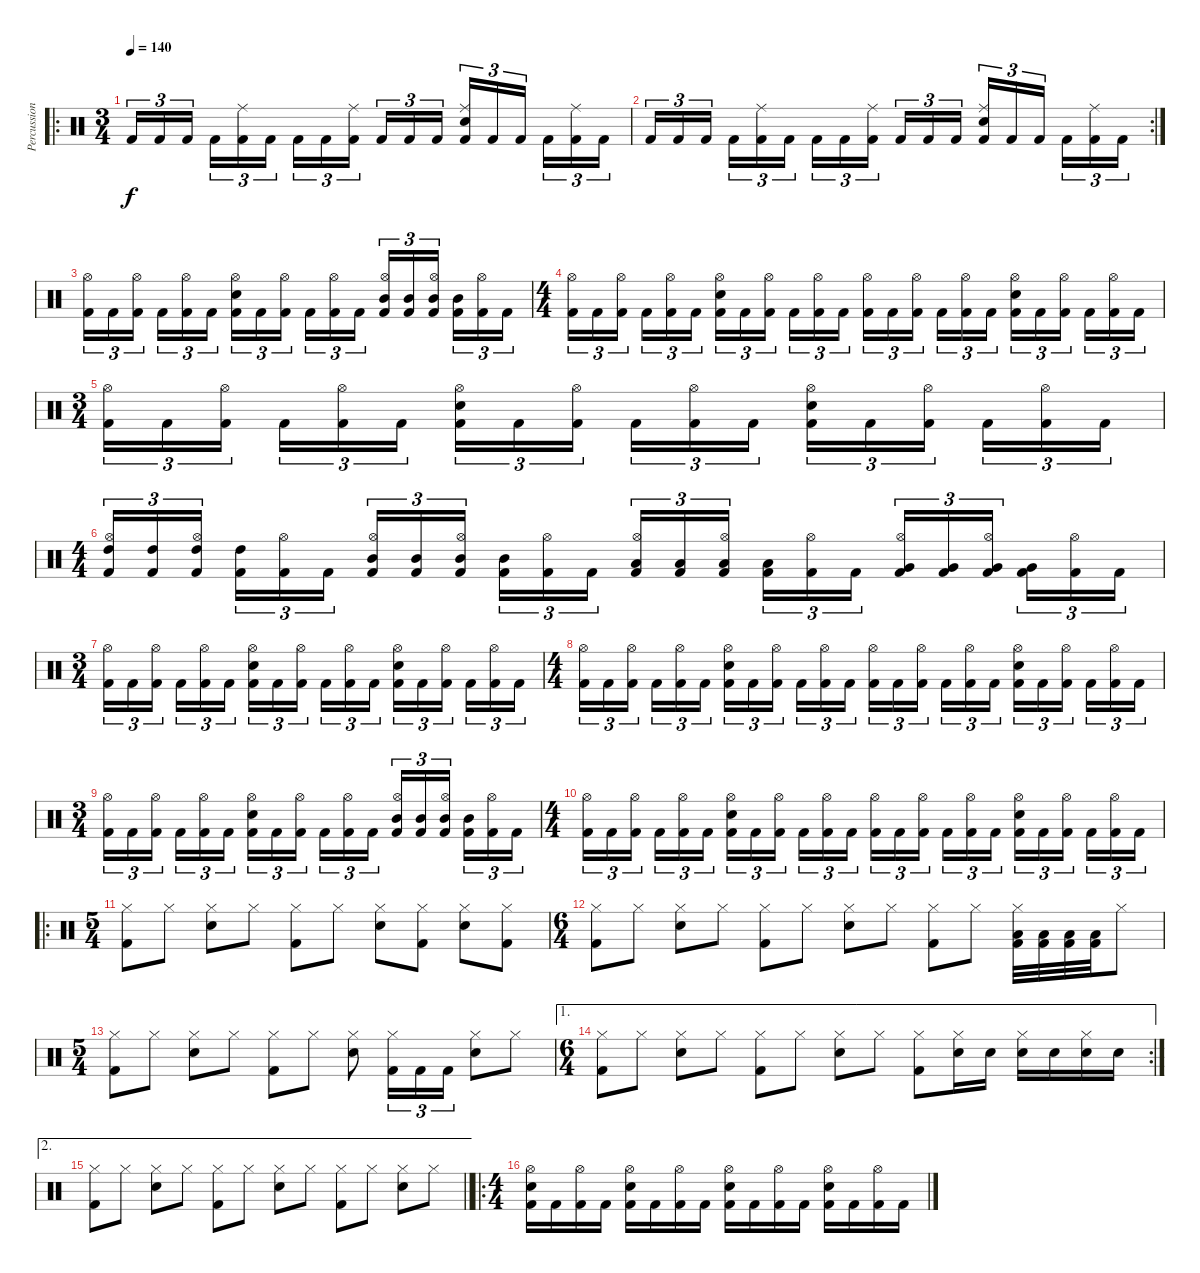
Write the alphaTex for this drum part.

\track ("Percussion" "Percussion") {instrument percussion}
\staff {score}
\articulation defaults
\ro
\ts (3 4)
\tempo 140
\clef neutral
\ks c "Kick (hit) 2".16{tu (3 2) dy f} "Kick (hit) 2".16{tu (3 2)} "Kick (hit) 2".16{tu (3 2)} "Kick (hit) 2".16{tu (3 2)}
("Ride (middle)" "Kick (hit) 2").16{tu (3 2)} "Kick (hit) 2".16{tu (3 2)} "Kick (hit) 2".16{tu (3 2)} "Kick (hit) 2".16{tu (3 2)} ("Ride (middle)" "Kick (hit) 2").16{tu (3 2)} "Kick (hit) 2".16{tu (3 2)} "Kick (hit) 2".16{tu (3 2)} "Kick (hit) 2".16{tu (3 2)} ("Ride (middle)" "Snare (hit) 2" "Kick (hit) 2").16{tu (3 2)} "Kick (hit) 2".16{tu (3 2)} "Kick (hit) 2".16{tu (3 2)} "Kick (hit) 2".16{tu (3 2)} ("Ride (middle)" "Kick (hit) 2").16{tu (3 2)} "Kick (hit) 2".16{tu (3 2)} |
\rc 2 "Kick (hit) 2".16{tu (3 2)} "Kick (hit) 2".16{tu (3 2)} "Kick (hit) 2".16{tu (3 2)} "Kick (hit) 2".16{tu (3 2)}
("Ride (middle)" "Kick (hit) 2").16{tu (3 2)} "Kick (hit) 2".16{tu (3 2)} "Kick (hit) 2".16{tu (3 2)} "Kick (hit) 2".16{tu (3 2)} ("Ride (middle)" "Kick (hit) 2").16{tu (3 2)} "Kick (hit) 2".16{tu (3 2)} "Kick (hit) 2".16{tu (3 2)} "Kick (hit) 2".16{tu (3 2)} ("Ride (middle)" "Snare (hit) 2" "Kick (hit) 2").16{tu (3 2)} "Kick (hit) 2".16{tu (3 2)} "Kick (hit) 2".16{tu (3 2)} "Kick (hit) 2".16{tu (3 2)} ("Ride (middle)" "Kick (hit) 2").16{tu (3 2)} "Kick (hit) 2".16{tu (3 2)} |
("Hi-Hat (open)" "Kick (hit) 2").16{tu (3 2)} "Kick (hit) 2".16{tu (3 2)} ("Hi-Hat (open)" "Kick (hit) 2").16{tu (3 2)} "Kick (hit) 2".16{tu (3 2)} ("Hi-Hat (open)" "Kick (hit) 2").16{tu (3 2)} "Kick (hit) 2".16{tu (3 2)} ("Hi-Hat (open)" "Snare (hit) 2" "Kick (hit) 2").16{tu (3 2)} "Kick (hit) 2".16{tu (3 2)} ("Hi-Hat (open)" "Kick (hit) 2").16{tu (3 2)} "Kick (hit) 2".16{tu (3 2)} ("Hi-Hat (open)" "Kick (hit) 2").16{tu (3 2)} "Kick (hit) 2".16{tu (3 2)} ("Hi-Hat (open)" "Mid Tom (hit)" "Kick (hit) 2").16{tu (3 2)} ("Mid Tom (hit)" "Kick (hit) 2").16{tu (3 2)} ("Hi-Hat (open)" "Mid Tom (hit)" "Kick (hit) 2").16{tu (3 2)} ("Mid Tom (hit)" "Kick (hit) 2").16{tu (3 2)} ("Hi-Hat (open)" "Kick (hit) 2").16{tu (3 2)} "Kick (hit) 2".16{tu (3 2)} |
\ts (4 4)
("Hi-Hat (open)" "Kick (hit) 2").16{tu (3 2)} "Kick (hit) 2".16{tu (3 2)} ("Hi-Hat (open)" "Kick (hit) 2").16{tu (3 2)} "Kick (hit) 2".16{tu (3 2)} ("Hi-Hat (open)" "Kick (hit) 2").16{tu (3 2)} "Kick (hit) 2".16{tu (3 2)} ("Hi-Hat (open)" "Snare (hit) 2" "Kick (hit) 2").16{tu (3 2)} "Kick (hit) 2".16{tu (3 2)} ("Hi-Hat (open)" "Kick (hit) 2").16{tu (3 2)} "Kick (hit) 2".16{tu (3 2)} ("Hi-Hat (open)" "Kick (hit) 2").16{tu (3 2)} "Kick (hit) 2".16{tu (3 2)} ("Hi-Hat (open)" "Kick (hit) 2").16{tu (3 2)} "Kick (hit) 2".16{tu (3 2)} ("Hi-Hat (open)" "Kick (hit) 2").16{tu (3 2)} "Kick (hit) 2".16{tu (3 2)} ("Hi-Hat (open)" "Kick (hit) 2").16{tu (3 2)} "Kick (hit) 2".16{tu (3 2)} ("Hi-Hat (open)" "Snare (hit) 2" "Kick (hit) 2").16{tu (3 2)} "Kick (hit) 2".16{tu (3 2)} ("Hi-Hat (open)" "Kick (hit) 2").16{tu (3 2)} "Kick (hit) 2".16{tu (3 2)} ("Hi-Hat (open)" "Kick (hit) 2").16{tu (3 2)} "Kick (hit) 2".16{tu (3 2)} |
\ts (3 4)
("Hi-Hat (open)" "Kick (hit) 2").16{tu (3 2)} "Kick (hit) 2".16{tu (3 2)} ("Hi-Hat (open)" "Kick (hit) 2").16{tu (3 2)} "Kick (hit) 2".16{tu (3 2)} ("Hi-Hat (open)" "Kick (hit) 2").16{tu (3 2)} "Kick (hit) 2".16{tu (3 2)} ("Hi-Hat (open)" "Snare (hit) 2" "Kick (hit) 2").16{tu (3 2)} "Kick (hit) 2".16{tu (3 2)} ("Hi-Hat (open)" "Kick (hit) 2").16{tu (3 2)} "Kick (hit) 2".16{tu (3 2)} ("Hi-Hat (open)" "Kick (hit) 2").16{tu (3 2)} "Kick (hit) 2".16{tu (3 2)} ("Hi-Hat (open)" "Snare (hit) 2" "Kick (hit) 2").16{tu (3 2)} "Kick (hit) 2".16{tu (3 2)} ("Hi-Hat (open)" "Kick (hit) 2").16{tu (3 2)} "Kick (hit) 2".16{tu (3 2)} ("Hi-Hat (open)" "Kick (hit) 2").16{tu (3 2)} "Kick (hit) 2".16{tu (3 2)} |
\ts (4 4)
("Hi-Hat (open)" "High Tom (hit)" "Kick (hit) 2").16{tu (3 2)} ("High Tom (hit)" "Kick (hit) 2").16{tu (3 2)} ("Hi-Hat (open)" "High Tom (hit)" "Kick (hit) 2").16{tu (3 2)} ("High Tom (hit)" "Kick (hit) 2").16{tu (3 2)} ("Hi-Hat (open)" "Kick (hit) 2").16{tu (3 2)} "Kick (hit) 2".16{tu (3 2)} ("Hi-Hat (open)" "Mid Tom (hit)" "Kick (hit) 2").16{tu (3 2)} ("Mid Tom (hit)" "Kick (hit) 2").16{tu (3 2)} ("Hi-Hat (open)" "Mid Tom (hit)" "Kick (hit) 2").16{tu (3 2)} ("Mid Tom (hit)" "Kick (hit) 2").16{tu (3 2)} ("Hi-Hat (open)" "Kick (hit) 2").16{tu (3 2)} "Kick (hit) 2".16{tu (3 2)} ("Hi-Hat (open)" "Low Tom (hit)" "Kick (hit) 2").16{tu (3 2)} ("Low Tom (hit)" "Kick (hit) 2").16{tu (3 2)} ("Hi-Hat (open)" "Low Tom (hit)" "Kick (hit) 2").16{tu (3 2)} ("Low Tom (hit)" "Kick (hit) 2").16{tu (3 2)} ("Hi-Hat (open)" "Kick (hit) 2").16{tu (3 2)} "Kick (hit) 2".16{tu (3 2)} ("Hi-Hat (open)" "Very Low Tom (hit)" "Kick (hit) 2").16{tu (3 2)} ("Very Low Tom (hit)" "Kick (hit) 2").16{tu (3 2)} ("Hi-Hat (open)" "Very Low Tom (hit)" "Kick (hit) 2").16{tu (3 2)} ("Very Low Tom (hit)" "Kick (hit) 2").16{tu (3 2)} ("Hi-Hat (open)" "Kick (hit) 2").16{tu (3 2)} "Kick (hit) 2".16{tu (3 2)} |
\ts (3 4)
("Hi-Hat (open)" "Kick (hit) 2").16{tu (3 2)} "Kick (hit) 2".16{tu (3 2)} ("Hi-Hat (open)" "Kick (hit) 2").16{tu (3 2)} "Kick (hit) 2".16{tu (3 2)} ("Hi-Hat (open)" "Kick (hit) 2").16{tu (3 2)} "Kick (hit) 2".16{tu (3 2)} ("Hi-Hat (open)" "Snare (hit) 2" "Kick (hit) 2").16{tu (3 2)} "Kick (hit) 2".16{tu (3 2)} ("Hi-Hat (open)" "Kick (hit) 2").16{tu (3 2)} "Kick (hit) 2".16{tu (3 2)} ("Hi-Hat (open)" "Kick (hit) 2").16{tu (3 2)} "Kick (hit) 2".16{tu (3 2)} ("Hi-Hat (open)" "Snare (hit) 2" "Kick (hit) 2").16{tu (3 2)} "Kick (hit) 2".16{tu (3 2)} ("Hi-Hat (open)" "Kick (hit) 2").16{tu (3 2)} "Kick (hit) 2".16{tu (3 2)} ("Hi-Hat (open)" "Kick (hit) 2").16{tu (3 2)} "Kick (hit) 2".16{tu (3 2)} |
\ts (4 4)
("Hi-Hat (open)" "Kick (hit) 2").16{tu (3 2)} "Kick (hit) 2".16{tu (3 2)} ("Hi-Hat (open)" "Kick (hit) 2").16{tu (3 2)} "Kick (hit) 2".16{tu (3 2)} ("Hi-Hat (open)" "Kick (hit) 2").16{tu (3 2)} "Kick (hit) 2".16{tu (3 2)} ("Hi-Hat (open)" "Snare (hit) 2" "Kick (hit) 2").16{tu (3 2)} "Kick (hit) 2".16{tu (3 2)} ("Hi-Hat (open)" "Kick (hit) 2").16{tu (3 2)} "Kick (hit) 2".16{tu (3 2)} ("Hi-Hat (open)" "Kick (hit) 2").16{tu (3 2)} "Kick (hit) 2".16{tu (3 2)} ("Hi-Hat (open)" "Kick (hit) 2").16{tu (3 2)} "Kick (hit) 2".16{tu (3 2)} ("Hi-Hat (open)" "Kick (hit) 2").16{tu (3 2)} "Kick (hit) 2".16{tu (3 2)} ("Hi-Hat (open)" "Kick (hit) 2").16{tu (3 2)} "Kick (hit) 2".16{tu (3 2)} ("Hi-Hat (open)" "Snare (hit) 2" "Kick (hit) 2").16{tu (3 2)} "Kick (hit) 2".16{tu (3 2)} ("Hi-Hat (open)" "Kick (hit) 2").16{tu (3 2)} "Kick (hit) 2".16{tu (3 2)} ("Hi-Hat (open)" "Kick (hit) 2").16{tu (3 2)} "Kick (hit) 2".16{tu (3 2)} |
\ts (3 4)
("Hi-Hat (open)" "Kick (hit) 2").16{tu (3 2)} "Kick (hit) 2".16{tu (3 2)} ("Hi-Hat (open)" "Kick (hit) 2").16{tu (3 2)} "Kick (hit) 2".16{tu (3 2)} ("Hi-Hat (open)" "Kick (hit) 2").16{tu (3 2)} "Kick (hit) 2".16{tu (3 2)} ("Hi-Hat (open)" "Snare (hit) 2" "Kick (hit) 2").16{tu (3 2)} "Kick (hit) 2".16{tu (3 2)} ("Hi-Hat (open)" "Kick (hit) 2").16{tu (3 2)} "Kick (hit) 2".16{tu (3 2)} ("Hi-Hat (open)" "Kick (hit) 2").16{tu (3 2)} "Kick (hit) 2".16{tu (3 2)} ("Hi-Hat (open)" "Mid Tom (hit)" "Kick (hit) 2").16{tu (3 2)} ("Mid Tom (hit)" "Kick (hit) 2").16{tu (3 2)} ("Hi-Hat (open)" "Mid Tom (hit)" "Kick (hit) 2").16{tu (3 2)} ("Mid Tom (hit)" "Kick (hit) 2").16{tu (3 2)} ("Hi-Hat (open)" "Kick (hit) 2").16{tu (3 2)} "Kick (hit) 2".16{tu (3 2)} |
\ts (4 4)
("Hi-Hat (open)" "Kick (hit) 2").16{tu (3 2)} "Kick (hit) 2".16{tu (3 2)} ("Hi-Hat (open)" "Kick (hit) 2").16{tu (3 2)} "Kick (hit) 2".16{tu (3 2)} ("Hi-Hat (open)" "Kick (hit) 2").16{tu (3 2)} "Kick (hit) 2".16{tu (3 2)} ("Hi-Hat (open)" "Snare (hit) 2" "Kick (hit) 2").16{tu (3 2)} "Kick (hit) 2".16{tu (3 2)} ("Hi-Hat (open)" "Kick (hit) 2").16{tu (3 2)} "Kick (hit) 2".16{tu (3 2)} ("Hi-Hat (open)" "Kick (hit) 2").16{tu (3 2)} "Kick (hit) 2".16{tu (3 2)} ("Hi-Hat (open)" "Kick (hit) 2").16{tu (3 2)} "Kick (hit) 2".16{tu (3 2)} ("Hi-Hat (open)" "Kick (hit) 2").16{tu (3 2)} "Kick (hit) 2".16{tu (3 2)} ("Hi-Hat (open)" "Kick (hit) 2").16{tu (3 2)} "Kick (hit) 2".16{tu (3 2)} ("Hi-Hat (open)" "Snare (hit) 2" "Kick (hit) 2").16{tu (3 2)} "Kick (hit) 2".16{tu (3 2)} ("Hi-Hat (open)" "Kick (hit) 2").16{tu (3 2)} "Kick (hit) 2".16{tu (3 2)} ("Hi-Hat (open)" "Kick (hit) 2").16{tu (3 2)} "Kick (hit) 2".16{tu (3 2)} |
\ro
\ts (5 4)
("Hi-Hat (closed)" "Kick (hit) 2").8 "Hi-Hat (closed)".8 ("Hi-Hat (closed)" "Snare (hit) 2").8 "Hi-Hat (closed)".8 ("Hi-Hat (closed)" "Kick (hit) 2").8 "Hi-Hat (closed)".8 ("Hi-Hat (closed)" "Snare (hit) 2").8 ("Hi-Hat (closed)" "Kick (hit) 2").8 ("Hi-Hat (closed)" "Snare (hit) 2").8 ("Hi-Hat (closed)" "Kick (hit) 2").8 |
\ts (6 4)
("Hi-Hat (closed)" "Kick (hit) 2").8 "Hi-Hat (closed)".8 ("Hi-Hat (closed)" "Snare (hit) 2").8 "Hi-Hat (closed)".8 ("Hi-Hat (closed)" "Kick (hit) 2").8 "Hi-Hat (closed)".8 ("Hi-Hat (closed)" "Snare (hit) 2").8 "Hi-Hat (closed)".8 ("Hi-Hat (closed)" "Kick (hit) 2").8 "Hi-Hat (closed)".8 ("Hi-Hat (closed)" "Low Tom (hit)" "Kick (hit) 2").32 ("Low Tom (hit)" "Kick (hit) 2").32 ("Low Tom (hit)" "Kick (hit) 2").32 ("Low Tom (hit)" "Kick (hit) 2").32 "Hi-Hat (closed)".8 |
\ts (5 4)
("Hi-Hat (closed)" "Kick (hit) 2").8 "Hi-Hat (closed)".8 ("Hi-Hat (closed)" "Snare (hit) 2").8 "Hi-Hat (closed)".8 ("Hi-Hat (closed)" "Kick (hit) 2").8 "Hi-Hat (closed)".8 ("Hi-Hat (closed)" "Snare (hit) 2").8 ("Hi-Hat (closed)" "Kick (hit) 2").16{tu (3 2)} "Kick (hit) 2".16{tu (3 2)} "Kick (hit) 2".16{tu (3 2)} ("Hi-Hat (closed)" "Snare (hit) 2").8 "Hi-Hat (closed)".8 |
\ae 1
\rc 2
\ts (6 4)
("Hi-Hat (closed)" "Kick (hit) 2").8 "Hi-Hat (closed)".8 ("Hi-Hat (closed)" "Snare (hit) 2").8 "Hi-Hat (closed)".8 ("Hi-Hat (closed)" "Kick (hit) 2").8 "Hi-Hat (closed)".8 ("Hi-Hat (closed)" "Snare (hit) 2").8 "Hi-Hat (closed)".8 ("Hi-Hat (closed)" "Kick (hit) 2").8 ("Hi-Hat (closed)" "Snare (hit) 2").16 "Snare (hit) 2".16 ("Hi-Hat (closed)" "Snare (hit) 2").16 "Snare (hit) 2".16 ("Hi-Hat (closed)" "Snare (hit) 2").16 "Snare (hit) 2".16 |
\ae 2
\barLineRight lightlight
("Hi-Hat (closed)" "Kick (hit) 2").8 "Hi-Hat (closed)".8 ("Hi-Hat (closed)" "Snare (hit) 2").8 "Hi-Hat (closed)".8 ("Hi-Hat (closed)" "Kick (hit) 2").8 "Hi-Hat (closed)".8 ("Hi-Hat (closed)" "Snare (hit) 2").8 "Hi-Hat (closed)".8 ("Hi-Hat (closed)" "Kick (hit) 2").8 "Hi-Hat (closed)".8 ("Hi-Hat (closed)" "Snare (hit) 2").8 "Hi-Hat (closed)".8 |
\ro
\ts (4 4)
("Hi-Hat (open)" "Snare (hit) 2" "Kick (hit) 2").16 "Kick (hit) 2".16 ("Hi-Hat (open)" "Kick (hit) 2").16 "Kick (hit) 2".16 ("Hi-Hat (open)" "Snare (hit) 2" "Kick (hit) 2").16 "Kick (hit) 2".16 ("Hi-Hat (open)" "Kick (hit) 2").16 "Kick (hit) 2".16 ("Hi-Hat (open)" "Snare (hit) 2" "Kick (hit) 2").16 "Kick (hit) 2".16 ("Hi-Hat (open)" "Kick (hit) 2").16 "Kick (hit) 2".16 ("Hi-Hat (open)" "Snare (hit) 2" "Kick (hit) 2").16 "Kick (hit) 2".16 ("Hi-Hat (open)" "Kick (hit) 2").16 "Kick (hit) 2".16
